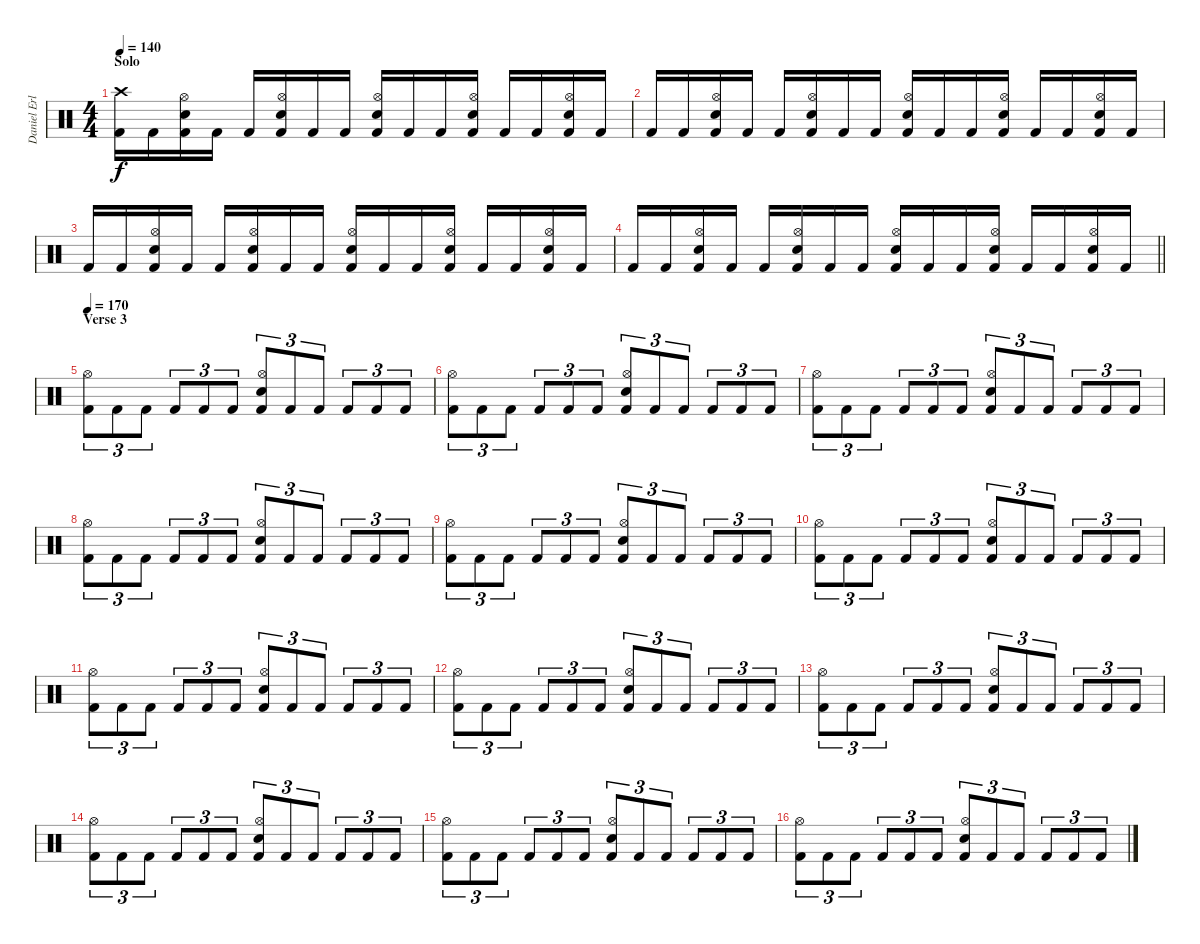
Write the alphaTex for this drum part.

\track ("Daniel Erlandsson" "Daniel Erl") {instrument percussion}
\staff {score}
\articulation defaults
\ts (4 4)
\section ("" "Solo")
\tempo 140
\clef neutral
\ks c
("Crash high (hit)" "Kick (hit) 2").16{dy f} "Kick (hit) 2".16 ("Hi-Hat (open)" "Snare (hit) 2" "Kick (hit) 2").16 "Kick (hit) 2".16 "Kick (hit) 2".16 ("Hi-Hat (open)" "Snare (hit) 2" "Kick (hit) 2").16 "Kick (hit) 2".16 "Kick (hit) 2".16 ("Hi-Hat (open)" "Snare (hit) 2" "Kick (hit) 2").16 "Kick (hit) 2".16 "Kick (hit) 2".16 ("Hi-Hat (open)" "Snare (hit) 2" "Kick (hit) 2").16 "Kick (hit) 2".16 "Kick (hit) 2".16 ("Hi-Hat (open)" "Snare (hit) 2" "Kick (hit) 2").16 "Kick (hit) 2".16 |
"Kick (hit) 2".16 "Kick (hit) 2".16 ("Hi-Hat (open)" "Snare (hit) 2" "Kick (hit) 2").16 "Kick (hit) 2".16 "Kick (hit) 2".16 ("Hi-Hat (open)" "Snare (hit) 2" "Kick (hit) 2").16 "Kick (hit) 2".16 "Kick (hit) 2".16 ("Hi-Hat (open)" "Snare (hit) 2" "Kick (hit) 2").16 "Kick (hit) 2".16 "Kick (hit) 2".16 ("Hi-Hat (open)" "Snare (hit) 2" "Kick (hit) 2").16 "Kick (hit) 2".16 "Kick (hit) 2".16 ("Hi-Hat (open)" "Snare (hit) 2" "Kick (hit) 2").16 "Kick (hit) 2".16 |
"Kick (hit) 2".16 "Kick (hit) 2".16 ("Hi-Hat (open)" "Snare (hit) 2" "Kick (hit) 2").16 "Kick (hit) 2".16 "Kick (hit) 2".16 ("Hi-Hat (open)" "Snare (hit) 2" "Kick (hit) 2").16 "Kick (hit) 2".16 "Kick (hit) 2".16 ("Hi-Hat (open)" "Snare (hit) 2" "Kick (hit) 2").16 "Kick (hit) 2".16 "Kick (hit) 2".16 ("Hi-Hat (open)" "Snare (hit) 2" "Kick (hit) 2").16 "Kick (hit) 2".16 "Kick (hit) 2".16 ("Hi-Hat (open)" "Snare (hit) 2" "Kick (hit) 2").16 "Kick (hit) 2".16 |
\barLineRight lightlight "Kick (hit) 2".16 "Kick (hit) 2".16
("Hi-Hat (open)" "Snare (hit) 2" "Kick (hit) 2").16 "Kick (hit) 2".16 "Kick (hit) 2".16 ("Hi-Hat (open)" "Snare (hit) 2" "Kick (hit) 2").16 "Kick (hit) 2".16 "Kick (hit) 2".16 ("Hi-Hat (open)" "Snare (hit) 2" "Kick (hit) 2").16 "Kick (hit) 2".16 "Kick (hit) 2".16 ("Hi-Hat (open)" "Snare (hit) 2" "Kick (hit) 2").16 "Kick (hit) 2".16 "Kick (hit) 2".16 ("Hi-Hat (open)" "Snare (hit) 2" "Kick (hit) 2").16 "Kick (hit) 2".16 |
\section ("" "Verse 3")
\tempo 170
("Hi-Hat (open)" "Kick (hit) 2").8{tu (3 2)} "Kick (hit) 2".8{tu (3 2)} "Kick (hit) 2".8{tu (3 2)} "Kick (hit) 2".8{tu (3 2)} "Kick (hit) 2".8{tu (3 2)} "Kick (hit) 2".8{tu (3 2)} ("Hi-Hat (open)" "Snare (hit) 2" "Kick (hit) 2").8{tu (3 2)} "Kick (hit) 2".8{tu (3 2)} "Kick (hit) 2".8{tu (3 2)} "Kick (hit) 2".8{tu (3 2)} "Kick (hit) 2".8{tu (3 2)} "Kick (hit) 2".8{tu (3 2)} |
("Hi-Hat (open)" "Kick (hit) 2").8{tu (3 2)} "Kick (hit) 2".8{tu (3 2)} "Kick (hit) 2".8{tu (3 2)} "Kick (hit) 2".8{tu (3 2)} "Kick (hit) 2".8{tu (3 2)} "Kick (hit) 2".8{tu (3 2)} ("Hi-Hat (open)" "Snare (hit) 2" "Kick (hit) 2").8{tu (3 2)} "Kick (hit) 2".8{tu (3 2)} "Kick (hit) 2".8{tu (3 2)} "Kick (hit) 2".8{tu (3 2)} "Kick (hit) 2".8{tu (3 2)} "Kick (hit) 2".8{tu (3 2)} |
("Hi-Hat (open)" "Kick (hit) 2").8{tu (3 2)} "Kick (hit) 2".8{tu (3 2)} "Kick (hit) 2".8{tu (3 2)} "Kick (hit) 2".8{tu (3 2)} "Kick (hit) 2".8{tu (3 2)} "Kick (hit) 2".8{tu (3 2)} ("Hi-Hat (open)" "Snare (hit) 2" "Kick (hit) 2").8{tu (3 2)} "Kick (hit) 2".8{tu (3 2)} "Kick (hit) 2".8{tu (3 2)} "Kick (hit) 2".8{tu (3 2)} "Kick (hit) 2".8{tu (3 2)} "Kick (hit) 2".8{tu (3 2)} |
("Hi-Hat (open)" "Kick (hit) 2").8{tu (3 2)} "Kick (hit) 2".8{tu (3 2)} "Kick (hit) 2".8{tu (3 2)} "Kick (hit) 2".8{tu (3 2)} "Kick (hit) 2".8{tu (3 2)} "Kick (hit) 2".8{tu (3 2)} ("Hi-Hat (open)" "Snare (hit) 2" "Kick (hit) 2").8{tu (3 2)} "Kick (hit) 2".8{tu (3 2)} "Kick (hit) 2".8{tu (3 2)} "Kick (hit) 2".8{tu (3 2)} "Kick (hit) 2".8{tu (3 2)} "Kick (hit) 2".8{tu (3 2)} |
("Hi-Hat (open)" "Kick (hit) 2").8{tu (3 2)} "Kick (hit) 2".8{tu (3 2)} "Kick (hit) 2".8{tu (3 2)} "Kick (hit) 2".8{tu (3 2)} "Kick (hit) 2".8{tu (3 2)} "Kick (hit) 2".8{tu (3 2)} ("Hi-Hat (open)" "Snare (hit) 2" "Kick (hit) 2").8{tu (3 2)} "Kick (hit) 2".8{tu (3 2)} "Kick (hit) 2".8{tu (3 2)} "Kick (hit) 2".8{tu (3 2)} "Kick (hit) 2".8{tu (3 2)} "Kick (hit) 2".8{tu (3 2)} |
("Hi-Hat (open)" "Kick (hit) 2").8{tu (3 2)} "Kick (hit) 2".8{tu (3 2)} "Kick (hit) 2".8{tu (3 2)} "Kick (hit) 2".8{tu (3 2)} "Kick (hit) 2".8{tu (3 2)} "Kick (hit) 2".8{tu (3 2)} ("Hi-Hat (open)" "Snare (hit) 2" "Kick (hit) 2").8{tu (3 2)} "Kick (hit) 2".8{tu (3 2)} "Kick (hit) 2".8{tu (3 2)} "Kick (hit) 2".8{tu (3 2)} "Kick (hit) 2".8{tu (3 2)} "Kick (hit) 2".8{tu (3 2)} |
("Hi-Hat (open)" "Kick (hit) 2").8{tu (3 2)} "Kick (hit) 2".8{tu (3 2)} "Kick (hit) 2".8{tu (3 2)} "Kick (hit) 2".8{tu (3 2)} "Kick (hit) 2".8{tu (3 2)} "Kick (hit) 2".8{tu (3 2)} ("Hi-Hat (open)" "Snare (hit) 2" "Kick (hit) 2").8{tu (3 2)} "Kick (hit) 2".8{tu (3 2)} "Kick (hit) 2".8{tu (3 2)} "Kick (hit) 2".8{tu (3 2)} "Kick (hit) 2".8{tu (3 2)} "Kick (hit) 2".8{tu (3 2)} |
("Hi-Hat (open)" "Kick (hit) 2").8{tu (3 2)} "Kick (hit) 2".8{tu (3 2)} "Kick (hit) 2".8{tu (3 2)} "Kick (hit) 2".8{tu (3 2)} "Kick (hit) 2".8{tu (3 2)} "Kick (hit) 2".8{tu (3 2)} ("Hi-Hat (open)" "Snare (hit) 2" "Kick (hit) 2").8{tu (3 2)} "Kick (hit) 2".8{tu (3 2)} "Kick (hit) 2".8{tu (3 2)} "Kick (hit) 2".8{tu (3 2)} "Kick (hit) 2".8{tu (3 2)} "Kick (hit) 2".8{tu (3 2)} |
("Hi-Hat (open)" "Kick (hit) 2").8{tu (3 2)} "Kick (hit) 2".8{tu (3 2)} "Kick (hit) 2".8{tu (3 2)} "Kick (hit) 2".8{tu (3 2)} "Kick (hit) 2".8{tu (3 2)} "Kick (hit) 2".8{tu (3 2)} ("Hi-Hat (open)" "Snare (hit) 2" "Kick (hit) 2").8{tu (3 2)} "Kick (hit) 2".8{tu (3 2)} "Kick (hit) 2".8{tu (3 2)} "Kick (hit) 2".8{tu (3 2)} "Kick (hit) 2".8{tu (3 2)} "Kick (hit) 2".8{tu (3 2)} |
("Hi-Hat (open)" "Kick (hit) 2").8{tu (3 2)} "Kick (hit) 2".8{tu (3 2)} "Kick (hit) 2".8{tu (3 2)} "Kick (hit) 2".8{tu (3 2)} "Kick (hit) 2".8{tu (3 2)} "Kick (hit) 2".8{tu (3 2)} ("Hi-Hat (open)" "Snare (hit) 2" "Kick (hit) 2").8{tu (3 2)} "Kick (hit) 2".8{tu (3 2)} "Kick (hit) 2".8{tu (3 2)} "Kick (hit) 2".8{tu (3 2)} "Kick (hit) 2".8{tu (3 2)} "Kick (hit) 2".8{tu (3 2)} |
("Hi-Hat (open)" "Kick (hit) 2").8{tu (3 2)} "Kick (hit) 2".8{tu (3 2)} "Kick (hit) 2".8{tu (3 2)} "Kick (hit) 2".8{tu (3 2)} "Kick (hit) 2".8{tu (3 2)} "Kick (hit) 2".8{tu (3 2)} ("Hi-Hat (open)" "Snare (hit) 2" "Kick (hit) 2").8{tu (3 2)} "Kick (hit) 2".8{tu (3 2)} "Kick (hit) 2".8{tu (3 2)} "Kick (hit) 2".8{tu (3 2)} "Kick (hit) 2".8{tu (3 2)} "Kick (hit) 2".8{tu (3 2)} |
("Hi-Hat (open)" "Kick (hit) 2").8{tu (3 2)} "Kick (hit) 2".8{tu (3 2)} "Kick (hit) 2".8{tu (3 2)} "Kick (hit) 2".8{tu (3 2)} "Kick (hit) 2".8{tu (3 2)} "Kick (hit) 2".8{tu (3 2)} ("Hi-Hat (open)" "Snare (hit) 2" "Kick (hit) 2").8{tu (3 2)} "Kick (hit) 2".8{tu (3 2)} "Kick (hit) 2".8{tu (3 2)} "Kick (hit) 2".8{tu (3 2)} "Kick (hit) 2".8{tu (3 2)} "Kick (hit) 2".8{tu (3 2)}
